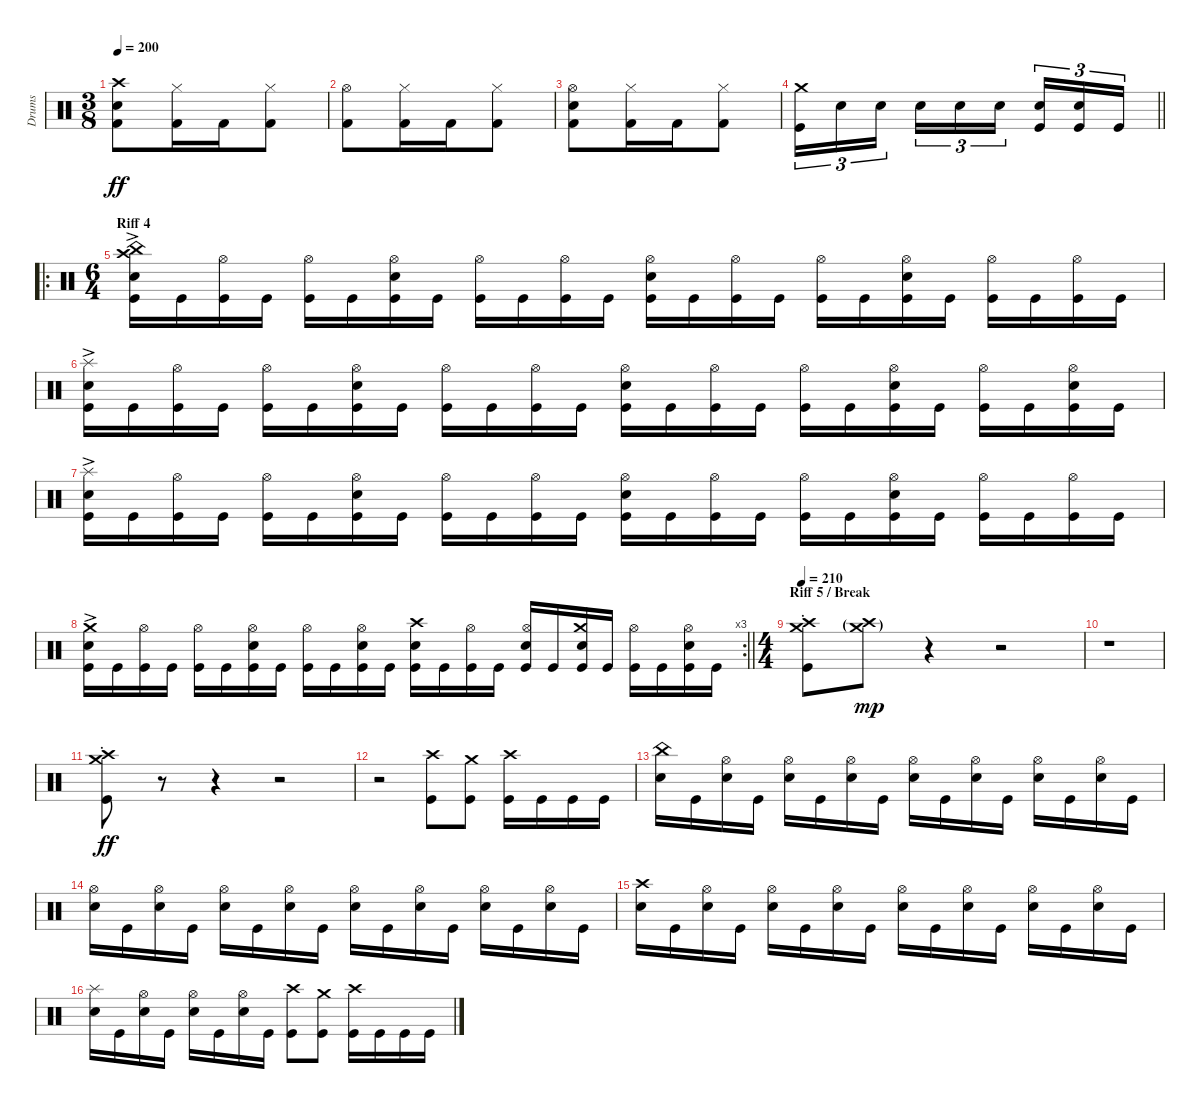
\track ("Drums" "Drums") {instrument percussion}
\staff {score}
\articulation defaults
\ts (3 8)
\tempo 200
\clef neutral
\ks c
("Crash high (hit)" "Electric Snare (hit)" "Kick (hit) 2").8{dy ff} ("Hi-Hat (closed)" "Kick (hit) 2").16 "Kick (hit) 2".16 ("Hi-Hat (closed)" "Kick (hit) 2").8 |
("Hi-Hat (open)" "Kick (hit) 2").8 ("Hi-Hat (closed)" "Kick (hit) 2").16 "Kick (hit) 2".16 ("Hi-Hat (closed)" "Kick (hit) 2").8 |
("Hi-Hat (open)" "Electric Snare (hit)" "Kick (hit) 2").8 ("Hi-Hat (closed)" "Kick (hit) 2").16 "Kick (hit) 2".16 ("Hi-Hat (closed)" "Kick (hit) 2").8 |
\barLineRight lightlight
("Crash medium (hit)" "Kick (hit)").16{tu (3 2)} "Electric Snare (hit)".16{tu (3 2)} "Electric Snare (hit)".16{tu (3 2)} "Electric Snare (hit)".16{tu (3 2)} "Electric Snare (hit)".16{tu (3 2)} "Electric Snare (hit)".16{tu (3 2)} ("Electric Snare (hit)" "Kick (hit)").16{tu (3 2)} ("Electric Snare (hit)" "Kick (hit)").16{tu (3 2)} "Kick (hit)".16{tu (3 2)} |
\ro
\ts (6 4)
\section ("" "Riff 4")
("China (hit)"{ac} "Crash high (hit)" "Electric Snare (hit)" "Kick (hit)").16 "Kick (hit)".16 ("Hi-Hat (open)" "Kick (hit)").16 "Kick (hit)".16 ("Hi-Hat (open)" "Kick (hit)").16 "Kick (hit)".16 ("Hi-Hat (open)" "Electric Snare (hit)" "Kick (hit)").16 "Kick (hit)".16 ("Hi-Hat (open)" "Kick (hit)").16 "Kick (hit)".16 ("Hi-Hat (open)" "Kick (hit)").16 "Kick (hit)".16 ("Hi-Hat (open)" "Electric Snare (hit)" "Kick (hit)").16 "Kick (hit)".16 ("Hi-Hat (open)" "Kick (hit)").16 "Kick (hit)".16 ("Hi-Hat (open)" "Kick (hit)").16 "Kick (hit)".16 ("Hi-Hat (open)" "Electric Snare (hit)" "Kick (hit)").16 "Kick (hit)".16 ("Hi-Hat (open)" "Kick (hit)").16 "Kick (hit)".16 ("Hi-Hat (open)" "Kick (hit)").16 "Kick (hit)".16 |
("Splash (hit)"{ac} "Electric Snare (hit)" "Kick (hit)").16 "Kick (hit)".16 ("Hi-Hat (open)" "Kick (hit)").16 "Kick (hit)".16 ("Hi-Hat (open)" "Kick (hit)").16 "Kick (hit)".16 ("Hi-Hat (open)" "Electric Snare (hit)" "Kick (hit)").16 "Kick (hit)".16 ("Hi-Hat (open)" "Kick (hit)").16 "Kick (hit)".16 ("Hi-Hat (open)" "Kick (hit)").16 "Kick (hit)".16 ("Hi-Hat (open)" "Electric Snare (hit)" "Kick (hit)").16 "Kick (hit)".16 ("Hi-Hat (open)" "Kick (hit)").16 "Kick (hit)".16 ("Hi-Hat (open)" "Kick (hit)").16 "Kick (hit)".16 ("Hi-Hat (open)" "Electric Snare (hit)" "Kick (hit)").16 "Kick (hit)".16 ("Hi-Hat (open)" "Kick (hit)").16 "Kick (hit)".16 ("Hi-Hat (open)" "Electric Snare (hit)" "Kick (hit)").16 "Kick (hit)".16 |
("Splash (hit)"{ac} "Electric Snare (hit)" "Kick (hit)").16 "Kick (hit)".16 ("Hi-Hat (open)" "Kick (hit)").16 "Kick (hit)".16 ("Hi-Hat (open)" "Kick (hit)").16 "Kick (hit)".16 ("Hi-Hat (open)" "Electric Snare (hit)" "Kick (hit)").16 "Kick (hit)".16 ("Hi-Hat (open)" "Kick (hit)").16 "Kick (hit)".16 ("Hi-Hat (open)" "Kick (hit)").16 "Kick (hit)".16 ("Hi-Hat (open)" "Electric Snare (hit)" "Kick (hit)").16 "Kick (hit)".16 ("Hi-Hat (open)" "Kick (hit)").16 "Kick (hit)".16 ("Hi-Hat (open)" "Kick (hit)").16 "Kick (hit)".16 ("Hi-Hat (open)" "Electric Snare (hit)" "Kick (hit)").16 "Kick (hit)".16 ("Hi-Hat (open)" "Kick (hit)").16 "Kick (hit)".16 ("Hi-Hat (open)" "Kick (hit)").16 "Kick (hit)".16 |
\rc 3
\barLineRight lightlight
("Crash medium (hit)"{ac} "Electric Snare (hit)" "Kick (hit)").16 "Kick (hit)".16 ("Hi-Hat (open)" "Kick (hit)").16 "Kick (hit)".16 ("Hi-Hat (open)" "Kick (hit)").16 "Kick (hit)".16 ("Hi-Hat (open)" "Electric Snare (hit)" "Kick (hit)").16 "Kick (hit)".16 ("Hi-Hat (open)" "Kick (hit)").16 "Kick (hit)".16 ("Hi-Hat (open)" "Electric Snare (hit)" "Kick (hit)").16 "Kick (hit)".16 ("Crash high (hit)" "Electric Snare (hit)" "Kick (hit)").16 "Kick (hit)".16 ("Hi-Hat (open)" "Kick (hit)").16 "Kick (hit)".16 ("Hi-Hat (open)" "Electric Snare (hit)" "Kick (hit)").16 "Kick (hit)".16 ("Crash medium (hit)" "Electric Snare (hit)" "Kick (hit)").16 "Kick (hit)".16 ("Hi-Hat (open)" "Kick (hit)").16 "Kick (hit)".16 ("Hi-Hat (open)" "Electric Snare (hit)" "Kick (hit)").16 "Kick (hit)".16 |
\ts (4 4)
\section ("" "Riff 5 / Break")
\tempo 210
("Crash medium (hit)"{st} "Crash high (hit)" "Kick (hit)"{st}).8 ("Crash medium (hit)"{g} "Crash high (hit)"{g}).8{dy mp} r.4 r.2 |
r.1 |
("Crash medium (hit)"{st} "Crash high (hit)" "Kick (hit)"{st}).8{dy ff} r.8 r.4 r.2 |
r.2 ("Crash high (hit)" "Kick (hit)").8 ("Crash medium (hit)" "Kick (hit)").8 ("Crash high (hit)" "Kick (hit)").16 "Kick (hit)".16 "Kick (hit)".16 "Kick (hit)".16 |
("China (hit)" "Electric Snare (hit)").16 "Kick (hit)".16 ("Hi-Hat (open)" "Electric Snare (hit)").16 "Kick (hit)".16 ("Hi-Hat (open)" "Electric Snare (hit)").16 "Kick (hit)".16 ("Hi-Hat (open)" "Electric Snare (hit)").16 "Kick (hit)".16 ("Hi-Hat (open)" "Electric Snare (hit)").16 "Kick (hit)".16 ("Hi-Hat (open)" "Electric Snare (hit)").16 "Kick (hit)".16 ("Hi-Hat (open)" "Electric Snare (hit)").16 "Kick (hit)".16 ("Hi-Hat (open)" "Electric Snare (hit)").16 "Kick (hit)".16 |
("Hi-Hat (open)" "Electric Snare (hit)").16 "Kick (hit)".16 ("Hi-Hat (open)" "Electric Snare (hit)").16 "Kick (hit)".16 ("Hi-Hat (open)" "Electric Snare (hit)").16 "Kick (hit)".16 ("Hi-Hat (open)" "Electric Snare (hit)").16 "Kick (hit)".16 ("Hi-Hat (open)" "Electric Snare (hit)").16 "Kick (hit)".16 ("Hi-Hat (open)" "Electric Snare (hit)").16 "Kick (hit)".16 ("Hi-Hat (open)" "Electric Snare (hit)").16 "Kick (hit)".16 ("Hi-Hat (open)" "Electric Snare (hit)").16 "Kick (hit)".16 |
("Crash high (hit)" "Electric Snare (hit)").16 "Kick (hit)".16 ("Hi-Hat (open)" "Electric Snare (hit)").16 "Kick (hit)".16 ("Hi-Hat (open)" "Electric Snare (hit)").16 "Kick (hit)".16 ("Hi-Hat (open)" "Electric Snare (hit)").16 "Kick (hit)".16 ("Hi-Hat (open)" "Electric Snare (hit)").16 "Kick (hit)".16 ("Hi-Hat (open)" "Electric Snare (hit)").16 "Kick (hit)".16 ("Hi-Hat (open)" "Electric Snare (hit)").16 "Kick (hit)".16 ("Hi-Hat (open)" "Electric Snare (hit)").16 "Kick (hit)".16 |
("Splash (hit)" "Electric Snare (hit)").16 "Kick (hit)".16 ("Hi-Hat (open)" "Electric Snare (hit)").16 "Kick (hit)".16 ("Hi-Hat (open)" "Electric Snare (hit)").16 "Kick (hit)".16 ("Hi-Hat (open)" "Electric Snare (hit)").16 "Kick (hit)".16 ("Crash high (hit)" "Kick (hit)").8 ("Crash medium (hit)" "Kick (hit)").8 ("Crash high (hit)" "Kick (hit)").16 "Kick (hit)".16 "Kick (hit)".16 "Kick (hit)".16
